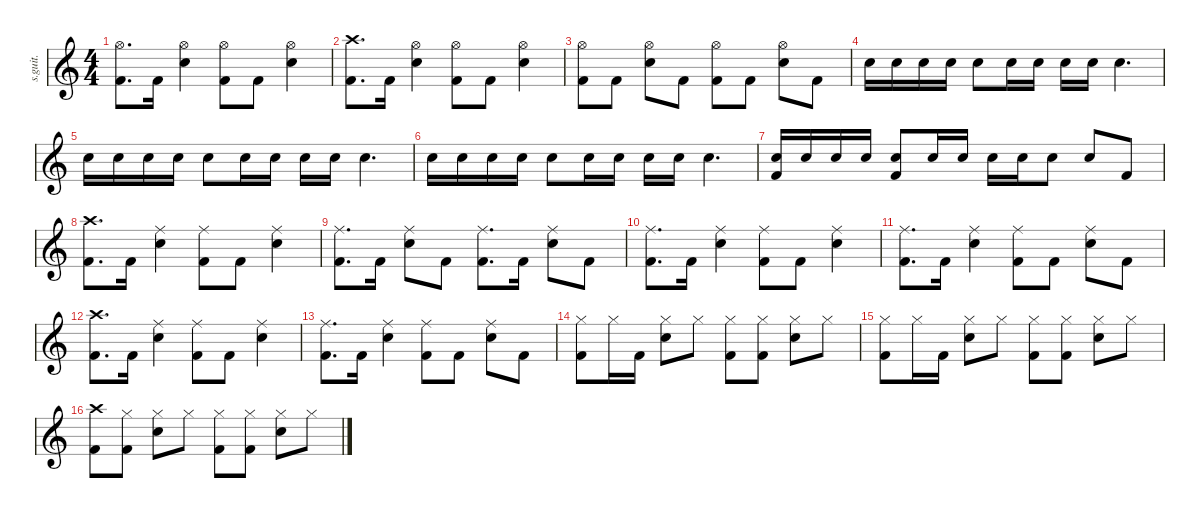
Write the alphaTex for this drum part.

\defaultSystemsLayout 4
\hideDynamics
\bracketExtendMode nobrackets
\track ("" "s.guit.") {instrument percussion}
\staff {score}
\articulation defaults
\ts (4 4)
\tempo (180 hide)
\clef g2
\ks c
("Kick (hit) 2" "Hi-Hat (open)").8{d dy f} "Kick (hit) 2".16 ("Snare (hit) 2" "Hi-Hat (open)").4 ("Kick (hit) 2" "Hi-Hat (open)").8 "Kick (hit) 2".8 ("Snare (hit) 2" "Hi-Hat (open)").4 |
("Kick (hit) 2" "Crash high (hit)").8{d} "Kick (hit) 2".16 ("Snare (hit) 2" "Hi-Hat (open)").4 ("Kick (hit) 2" "Hi-Hat (open)").8 "Kick (hit) 2".8 ("Snare (hit) 2" "Hi-Hat (open)").4 |
("Kick (hit) 2" "Hi-Hat (open)").8 "Kick (hit) 2".8 ("Snare (hit) 2" "Hi-Hat (open)").8 "Kick (hit) 2".8 ("Kick (hit) 2" "Hi-Hat (open)").8 "Kick (hit) 2".8 ("Snare (hit) 2" "Hi-Hat (open)").8 "Kick (hit) 2".8 |
"Snare (hit) 2".16 "Snare (hit) 2".16 "Snare (hit) 2".16 "Snare (hit) 2".16 "Snare (hit) 2".8 "Snare (hit) 2".16 "Snare (hit) 2".16 "Snare (hit) 2".16 "Snare (hit) 2".16 "Snare (hit) 2".4{d} |
"Snare (hit) 2".16 "Snare (hit) 2".16 "Snare (hit) 2".16 "Snare (hit) 2".16 "Snare (hit) 2".8 "Snare (hit) 2".16 "Snare (hit) 2".16 "Snare (hit) 2".16 "Snare (hit) 2".16 "Snare (hit) 2".4{d} |
"Snare (hit) 2".16 "Snare (hit) 2".16 "Snare (hit) 2".16 "Snare (hit) 2".16 "Snare (hit) 2".8 "Snare (hit) 2".16 "Snare (hit) 2".16 "Snare (hit) 2".16 "Snare (hit) 2".16 "Snare (hit) 2".4{d} |
("Kick (hit) 2" "Snare (hit) 2").16 "Snare (hit) 2".16 "Snare (hit) 2".16 "Snare (hit) 2".16 ("Kick (hit) 2" "Snare (hit) 2").8 "Snare (hit) 2".16 "Snare (hit) 2".16 "Snare (hit) 2".16 "Snare (hit) 2".16 "Snare (hit) 2".8 "Snare (hit) 2".8 "Kick (hit) 2".8 |
("Kick (hit) 2" "Crash high (hit)").8{d} "Kick (hit) 2".16 ("Snare (hit) 2" "Ride (middle)").4 ("Kick (hit) 2" "Ride (middle)").8 "Kick (hit) 2".8 ("Snare (hit) 2" "Ride (middle)").4 |
("Kick (hit) 2" "Ride (middle)").8{d} "Kick (hit) 2".16 ("Snare (hit) 2" "Ride (middle)").8 "Kick (hit) 2".8 ("Kick (hit) 2" "Ride (middle)").8{d} "Kick (hit) 2".16 ("Snare (hit) 2" "Ride (middle)").8 "Kick (hit) 2".8 |
("Kick (hit) 2" "Ride (middle)").8{d} "Kick (hit) 2".16 ("Snare (hit) 2" "Ride (middle)").4 ("Kick (hit) 2" "Ride (middle)").8 "Kick (hit) 2".8 ("Snare (hit) 2" "Ride (middle)").4 |
("Kick (hit) 2" "Ride (middle)").8{d} "Kick (hit) 2".16 ("Snare (hit) 2" "Ride (middle)").4 ("Kick (hit) 2" "Ride (middle)").8 "Kick (hit) 2".8 ("Snare (hit) 2" "Ride (middle)").8 "Kick (hit) 2".8 |
("Kick (hit) 2" "Crash high (hit)").8{d} "Kick (hit) 2".16 ("Snare (hit) 2" "Ride (middle)").4 ("Kick (hit) 2" "Ride (middle)").8 "Kick (hit) 2".8 ("Snare (hit) 2" "Ride (middle)").4 |
("Kick (hit) 2" "Ride (middle)").8{d} "Kick (hit) 2".16 ("Snare (hit) 2" "Ride (middle)").4 ("Kick (hit) 2" "Ride (middle)").8 "Kick (hit) 2".8 ("Snare (hit) 2" "Ride (middle)").8 "Kick (hit) 2".8 |
("Kick (hit) 2" "Hi-Hat (closed)").8 "Hi-Hat (closed)".16 "Kick (hit) 2".16 ("Snare (hit) 2" "Hi-Hat (closed)").8 "Hi-Hat (closed)".8 ("Kick (hit) 2" "Hi-Hat (closed)").8 ("Kick (hit) 2" "Hi-Hat (closed)").8 ("Snare (hit) 2" "Hi-Hat (closed)").8 "Hi-Hat (closed)".8 |
("Kick (hit) 2" "Hi-Hat (closed)").8 "Hi-Hat (closed)".16 "Kick (hit) 2".16 ("Snare (hit) 2" "Hi-Hat (closed)").8 "Hi-Hat (closed)".8 ("Kick (hit) 2" "Hi-Hat (closed)").8 ("Kick (hit) 2" "Hi-Hat (closed)").8 ("Snare (hit) 2" "Hi-Hat (closed)").8 "Hi-Hat (closed)".8 |
("Kick (hit) 2" "Crash high (hit)").8 ("Kick (hit) 2" "Hi-Hat (closed)").8 ("Snare (hit) 2" "Hi-Hat (closed)").8 "Hi-Hat (closed)".8 ("Kick (hit) 2" "Hi-Hat (closed)").8 ("Kick (hit) 2" "Hi-Hat (closed)").8 ("Snare (hit) 2" "Hi-Hat (closed)").8 "Hi-Hat (closed)".8
